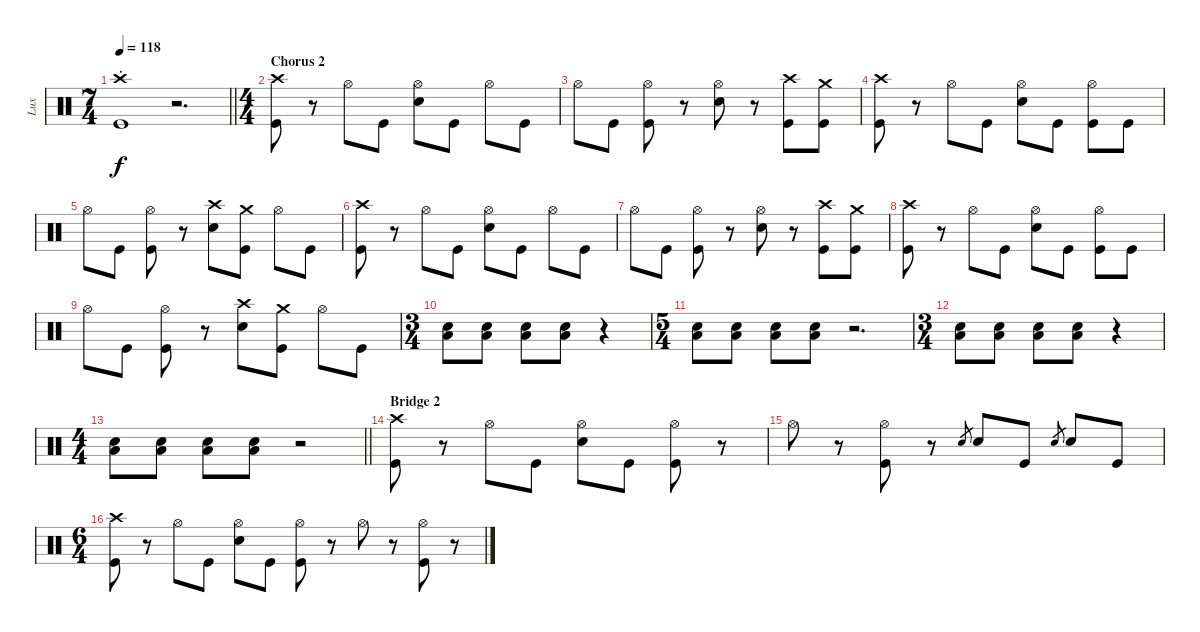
\track ("Lux" "Lux") {instrument percussion}
\staff {score}
\articulation defaults
\ts (7 4)
\tempo 118
\clef neutral
\barLineRight lightlight
\ks c
("Crash high (hit)"{st} "Kick (hit)").1{dy f} r.2{d} |
\ts (4 4)
\section ("" "Chorus 2")
("Crash high (hit)" "Kick (hit)").8 r.8 "Hi-Hat (open)".8 "Kick (hit)".8 ("Hi-Hat (open)" "Snare (hit) 2").8 "Kick (hit)".8 "Hi-Hat (open)".8 "Kick (hit)".8 |
"Hi-Hat (open)".8 "Kick (hit)".8 ("Hi-Hat (open)" "Kick (hit)").8 r.8 ("Hi-Hat (open)" "Snare (hit) 2").8 r.8 ("Crash high (hit)" "Kick (hit)").8 ("Crash medium (hit)" "Kick (hit)").8 |
("Crash high (hit)" "Kick (hit)").8 r.8 "Hi-Hat (open)".8 "Kick (hit)".8 ("Hi-Hat (open)" "Snare (hit) 2").8 "Kick (hit)".8 ("Hi-Hat (open)" "Kick (hit)").8 "Kick (hit)".8 |
"Hi-Hat (open)".8 "Kick (hit)".8 ("Hi-Hat (open)" "Kick (hit)").8 r.8 ("Crash high (hit)" "Snare (hit) 2").8 ("Crash medium (hit)" "Kick (hit)").8 "Hi-Hat (open)".8 "Kick (hit)".8 |
("Crash high (hit)" "Kick (hit)").8 r.8 "Hi-Hat (open)".8 "Kick (hit)".8 ("Hi-Hat (open)" "Snare (hit) 2").8 "Kick (hit)".8 "Hi-Hat (open)".8 "Kick (hit)".8 |
"Hi-Hat (open)".8 "Kick (hit)".8 ("Hi-Hat (open)" "Kick (hit)").8 r.8 ("Hi-Hat (open)" "Snare (hit) 2").8 r.8 ("Crash high (hit)" "Kick (hit)").8 ("Crash medium (hit)" "Kick (hit)").8 |
("Crash high (hit)" "Kick (hit)").8 r.8 "Hi-Hat (open)".8 "Kick (hit)".8 ("Hi-Hat (open)" "Snare (hit) 2").8 "Kick (hit)".8 ("Hi-Hat (open)" "Kick (hit)").8 "Kick (hit)".8 |
"Hi-Hat (open)".8 "Kick (hit)".8 ("Hi-Hat (open)" "Kick (hit)").8 r.8 ("Crash high (hit)" "Snare (hit) 2").8 ("Crash medium (hit)" "Kick (hit)").8 "Hi-Hat (open)".8 "Kick (hit)".8 |
\ts (3 4)
("Snare (hit) 2" "Low Tom (hit)").8 ("Snare (hit) 2" "Low Tom (hit)").8 ("Snare (hit) 2" "Low Tom (hit)").8 ("Snare (hit) 2" "Low Tom (hit)").8 r.4 |
\ts (5 4)
("Snare (hit) 2" "Low Tom (hit)").8 ("Snare (hit) 2" "Low Tom (hit)").8 ("Snare (hit) 2" "Low Tom (hit)").8 ("Snare (hit) 2" "Low Tom (hit)").8 r.2{d} |
\ts (3 4)
("Snare (hit) 2" "Low Tom (hit)").8 ("Snare (hit) 2" "Low Tom (hit)").8 ("Snare (hit) 2" "Low Tom (hit)").8 ("Snare (hit) 2" "Low Tom (hit)").8 r.4 |
\ts (4 4)
\barLineRight lightlight
("Snare (hit) 2" "Low Tom (hit)").8 ("Snare (hit) 2" "Low Tom (hit)").8 ("Snare (hit) 2" "Low Tom (hit)").8 ("Snare (hit) 2" "Low Tom (hit)").8 r.2 |
\section ("" "Bridge 2")
("Crash high (hit)" "Kick (hit)").8 r.8 "Hi-Hat (open)".8 "Kick (hit)".8 ("Hi-Hat (open)" "Snare (hit) 2").8 "Kick (hit)".8 ("Hi-Hat (open)" "Kick (hit)").8 r.8 |
"Hi-Hat (open)".8 r.8 ("Hi-Hat (open)" "Kick (hit)").8 r.8 "Snare (hit) 2".8{gr} "Snare (hit) 2".8 "Kick (hit)".8 "Snare (hit) 2".8{gr} "Snare (hit) 2".8 "Kick (hit)".8 |
\ts (6 4)
("Crash high (hit)" "Kick (hit)").8 r.8 "Hi-Hat (open)".8 "Kick (hit)".8 ("Hi-Hat (open)" "Snare (hit) 2").8 "Kick (hit)".8 ("Hi-Hat (open)" "Kick (hit)").8 r.8 "Hi-Hat (open)".8 r.8 ("Hi-Hat (open)" "Kick (hit)").8 r.8
